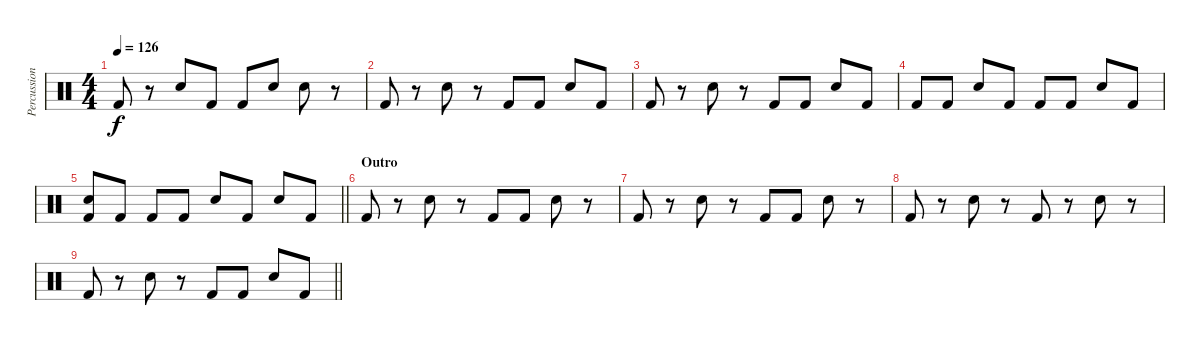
\track ("Percussion" "Percussion") {instrument percussion}
\staff {score}
\articulation defaults
\ts (4 4)
\tempo 126
\clef neutral
\ks c "Kick (hit) 2".8{dy f}
r.8 "Snare (hit) 2".8 "Kick (hit) 2".8 "Kick (hit) 2".8 "Snare (hit) 2".8 "Snare (hit) 2".8 r.8 |
"Kick (hit) 2".8 r.8 "Snare (hit) 2".8 r.8 "Kick (hit) 2".8 "Kick (hit) 2".8 "Snare (hit) 2".8 "Kick (hit) 2".8 |
"Kick (hit) 2".8 r.8 "Snare (hit) 2".8 r.8 "Kick (hit) 2".8 "Kick (hit) 2".8 "Snare (hit) 2".8 "Kick (hit) 2".8 |
"Kick (hit) 2".8 "Kick (hit) 2".8 "Snare (hit) 2".8 "Kick (hit) 2".8 "Kick (hit) 2".8 "Kick (hit) 2".8 "Snare (hit) 2".8 "Kick (hit) 2".8 |
\barLineRight lightlight
("Snare (hit) 2" "Kick (hit) 2").8 "Kick (hit) 2".8 "Kick (hit) 2".8 "Kick (hit) 2".8 "Snare (hit) 2".8 "Kick (hit) 2".8 "Snare (hit) 2".8 "Kick (hit) 2".8 |
\section ("" "Outro")
"Kick (hit) 2".8 r.8 "Snare (hit) 2".8 r.8 "Kick (hit) 2".8 "Kick (hit) 2".8 "Snare (hit) 2".8 r.8 |
"Kick (hit) 2".8 r.8 "Snare (hit) 2".8 r.8 "Kick (hit) 2".8 "Kick (hit) 2".8 "Snare (hit) 2".8 r.8 |
"Kick (hit) 2".8 r.8 "Snare (hit) 2".8 r.8 "Kick (hit) 2".8 r.8 "Snare (hit) 2".8 r.8 |
\barLineRight lightlight "Kick (hit) 2".8
r.8 "Snare (hit) 2".8 r.8 "Kick (hit) 2".8 "Kick (hit) 2".8 "Snare (hit) 2".8 "Kick (hit) 2".8
